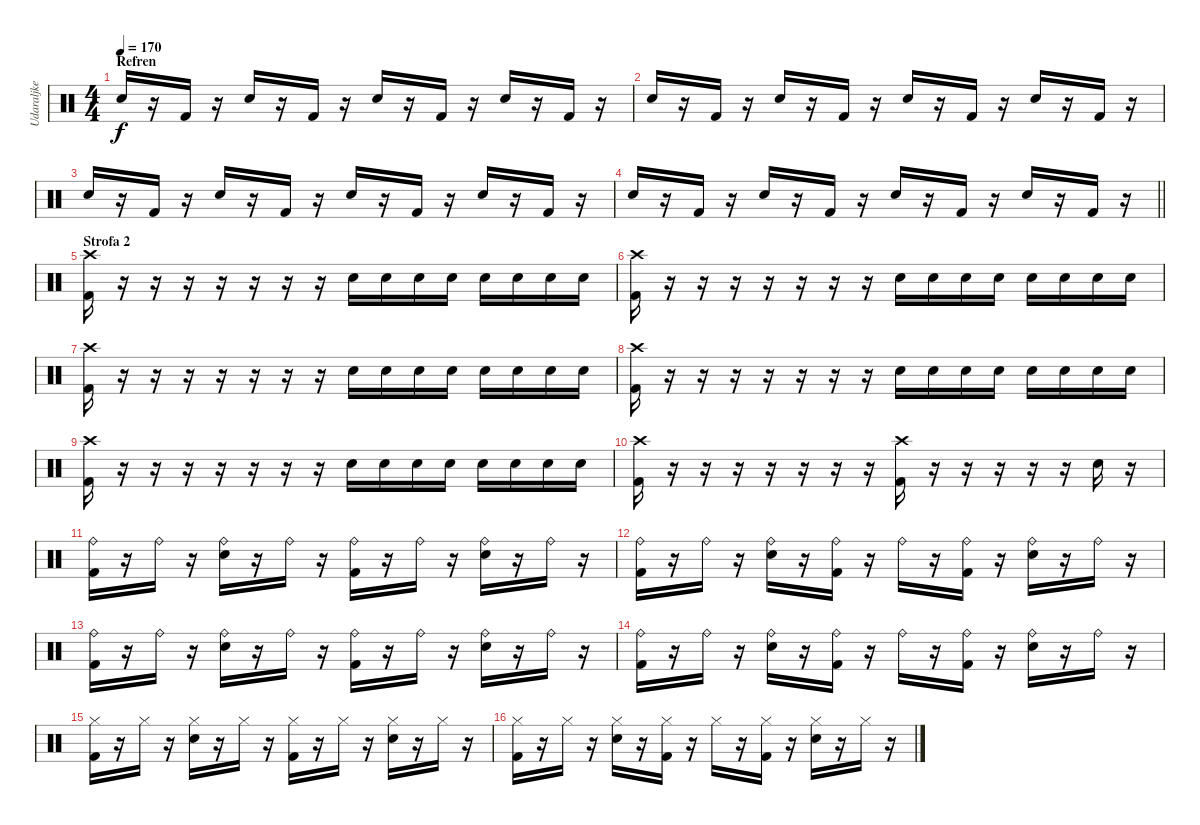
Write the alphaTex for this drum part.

\track ("Udaraljke" "Udaraljke") {instrument percussion}
\staff {score}
\articulation defaults
\ts (4 4)
\section ("" "Refren")
\tempo 170
\clef neutral
\ks c "Snare (hit) 2".16{dy f}
r.16 "Kick (hit) 2".16 r.16 "Snare (hit) 2".16 r.16 "Kick (hit) 2".16 r.16 "Snare (hit) 2".16 r.16 "Kick (hit) 2".16 r.16 "Snare (hit) 2".16 r.16 "Kick (hit) 2".16 r.16 |
"Snare (hit) 2".16 r.16 "Kick (hit) 2".16 r.16 "Snare (hit) 2".16 r.16 "Kick (hit) 2".16 r.16 "Snare (hit) 2".16 r.16 "Kick (hit) 2".16 r.16 "Snare (hit) 2".16 r.16 "Kick (hit) 2".16 r.16 |
"Snare (hit) 2".16 r.16 "Kick (hit) 2".16 r.16 "Snare (hit) 2".16 r.16 "Kick (hit) 2".16 r.16 "Snare (hit) 2".16 r.16 "Kick (hit) 2".16 r.16 "Snare (hit) 2".16 r.16 "Kick (hit) 2".16 r.16 |
\barLineRight lightlight "Snare (hit) 2".16
r.16 "Kick (hit) 2".16 r.16 "Snare (hit) 2".16 r.16 "Kick (hit) 2".16 r.16 "Snare (hit) 2".16 r.16 "Kick (hit) 2".16 r.16 "Snare (hit) 2".16 r.16 "Kick (hit) 2".16 r.16 |
\section ("" "Strofa 2")
("Crash high (hit)" "Kick (hit) 2").16 r.16 r.16 r.16 r.16 r.16 r.16 r.16 "Snare (hit) 2".16 "Snare (hit) 2".16 "Snare (hit) 2".16 "Snare (hit) 2".16 "Snare (hit) 2".16 "Snare (hit) 2".16 "Snare (hit) 2".16 "Snare (hit) 2".16 |
("Crash high (hit)" "Kick (hit) 2").16 r.16 r.16 r.16 r.16 r.16 r.16 r.16 "Snare (hit) 2".16 "Snare (hit) 2".16 "Snare (hit) 2".16 "Snare (hit) 2".16 "Snare (hit) 2".16 "Snare (hit) 2".16 "Snare (hit) 2".16 "Snare (hit) 2".16 |
("Crash high (hit)" "Kick (hit) 2").16 r.16 r.16 r.16 r.16 r.16 r.16 r.16 "Snare (hit) 2".16 "Snare (hit) 2".16 "Snare (hit) 2".16 "Snare (hit) 2".16 "Snare (hit) 2".16 "Snare (hit) 2".16 "Snare (hit) 2".16 "Snare (hit) 2".16 |
("Crash high (hit)" "Kick (hit) 2").16 r.16 r.16 r.16 r.16 r.16 r.16 r.16 "Snare (hit) 2".16 "Snare (hit) 2".16 "Snare (hit) 2".16 "Snare (hit) 2".16 "Snare (hit) 2".16 "Snare (hit) 2".16 "Snare (hit) 2".16 "Snare (hit) 2".16 |
("Crash high (hit)" "Kick (hit) 2").16 r.16 r.16 r.16 r.16 r.16 r.16 r.16 "Snare (hit) 2".16 "Snare (hit) 2".16 "Snare (hit) 2".16 "Snare (hit) 2".16 "Snare (hit) 2".16 "Snare (hit) 2".16 "Snare (hit) 2".16 "Snare (hit) 2".16 |
("Crash high (hit)" "Kick (hit) 2").16 r.16 r.16 r.16 r.16 r.16 r.16 r.16 ("Crash high (hit)" "Kick (hit) 2").16 r.16 r.16 r.16 r.16 r.16 "Snare (hit) 2".16 r.16 |
("Ride (bell)" "Kick (hit) 2").16 r.16 "Ride (bell)".16 r.16 ("Ride (bell)" "Snare (hit) 2").16 r.16 "Ride (bell)".16 r.16 ("Ride (bell)" "Kick (hit) 2").16 r.16 "Ride (bell)".16 r.16 ("Ride (bell)" "Snare (hit) 2").16 r.16 "Ride (bell)".16 r.16 |
("Ride (bell)" "Kick (hit) 2").16 r.16 "Ride (bell)".16 r.16 ("Ride (bell)" "Snare (hit) 2").16 r.16 ("Ride (bell)" "Kick (hit) 2").16 r.16 "Ride (bell)".16 r.16 ("Ride (bell)" "Kick (hit) 2").16 r.16 ("Ride (bell)" "Snare (hit) 2").16 r.16 "Ride (bell)".16 r.16 |
("Ride (bell)" "Kick (hit) 2").16 r.16 "Ride (bell)".16 r.16 ("Ride (bell)" "Snare (hit) 2").16 r.16 "Ride (bell)".16 r.16 ("Ride (bell)" "Kick (hit) 2").16 r.16 "Ride (bell)".16 r.16 ("Ride (bell)" "Snare (hit) 2").16 r.16 "Ride (bell)".16 r.16 |
("Ride (bell)" "Kick (hit) 2").16 r.16 "Ride (bell)".16 r.16 ("Ride (bell)" "Snare (hit) 2").16 r.16 ("Ride (bell)" "Kick (hit) 2").16 r.16 "Ride (bell)".16 r.16 ("Ride (bell)" "Kick (hit) 2").16 r.16 ("Ride (bell)" "Snare (hit) 2").16 r.16 "Ride (bell)".16 r.16 |
("Hi-Hat (closed)" "Kick (hit) 2").16 r.16 "Hi-Hat (closed)".16 r.16 ("Hi-Hat (closed)" "Snare (hit) 2").16 r.16 "Hi-Hat (closed)".16 r.16 ("Hi-Hat (closed)" "Kick (hit) 2").16 r.16 "Hi-Hat (closed)".16 r.16 ("Hi-Hat (closed)" "Snare (hit) 2").16 r.16 "Hi-Hat (closed)".16 r.16 |
("Hi-Hat (closed)" "Kick (hit) 2").16 r.16 "Hi-Hat (closed)".16 r.16 ("Hi-Hat (closed)" "Snare (hit) 2").16 r.16 ("Hi-Hat (closed)" "Kick (hit) 2").16 r.16 "Hi-Hat (closed)".16 r.16 ("Hi-Hat (closed)" "Kick (hit) 2").16 r.16 ("Hi-Hat (closed)" "Snare (hit) 2").16 r.16 "Hi-Hat (closed)".16 r.16
